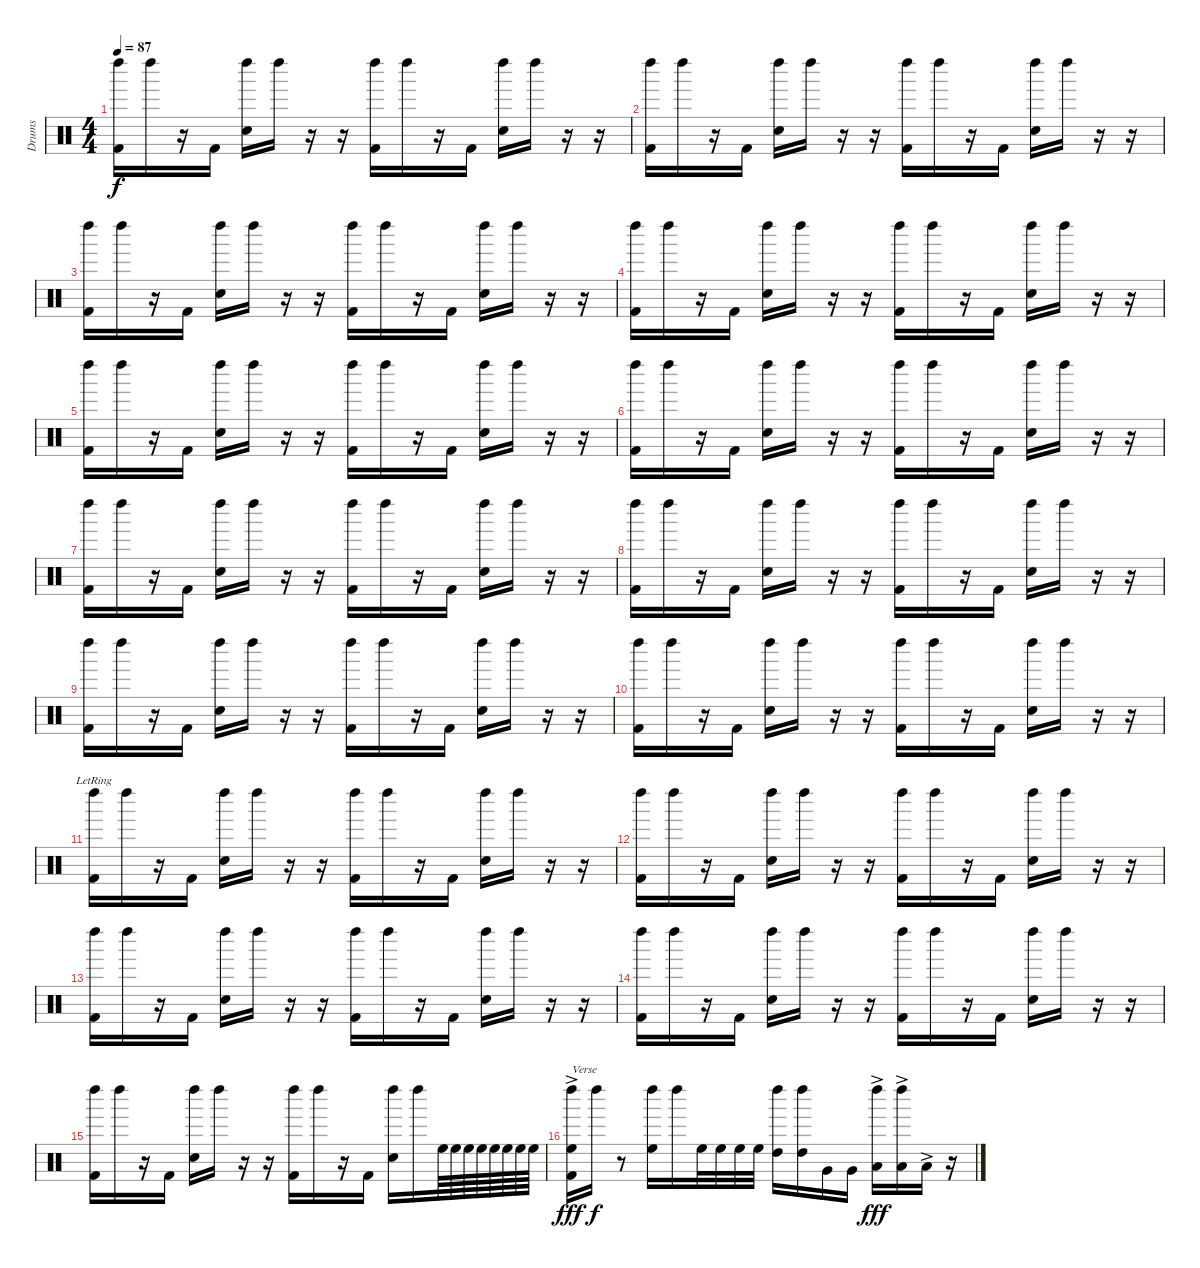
\track ("Drums" "Drums") {instrument percussion}
\staff {score}
\articulation defaults
\ts (4 4)
\tempo 87
\clef neutral
\ks c
("Left Maraca (hit)" "Kick (hit) 2").16{dy f} "Left Maraca (hit)".16 r.16 "Kick (hit) 2".16 ("Left Maraca (hit)" "Hand Clap (hit)").16 "Left Maraca (hit)".16 r.16 r.16 ("Left Maraca (hit)" "Kick (hit) 2").16 "Left Maraca (hit)".16 r.16 "Kick (hit) 2".16 ("Left Maraca (hit)" "Hand Clap (hit)").16 "Left Maraca (hit)".16 r.16 r.16 |
("Left Maraca (hit)" "Kick (hit) 2").16 "Left Maraca (hit)".16 r.16 "Kick (hit) 2".16 ("Left Maraca (hit)" "Hand Clap (hit)").16 "Left Maraca (hit)".16 r.16 r.16 ("Left Maraca (hit)" "Kick (hit) 2").16 "Left Maraca (hit)".16 r.16 "Kick (hit) 2".16 ("Left Maraca (hit)" "Hand Clap (hit)").16 "Left Maraca (hit)".16 r.16 r.16 |
("Left Maraca (hit)" "Kick (hit) 2").16 "Left Maraca (hit)".16 r.16 "Kick (hit) 2".16 ("Left Maraca (hit)" "Hand Clap (hit)").16 "Left Maraca (hit)".16 r.16 r.16 ("Left Maraca (hit)" "Kick (hit) 2").16 "Left Maraca (hit)".16 r.16 "Kick (hit) 2".16 ("Left Maraca (hit)" "Hand Clap (hit)").16 "Left Maraca (hit)".16 r.16 r.16 |
("Left Maraca (hit)" "Kick (hit) 2").16 "Left Maraca (hit)".16 r.16 "Kick (hit) 2".16 ("Left Maraca (hit)" "Hand Clap (hit)").16 "Left Maraca (hit)".16 r.16 r.16 ("Left Maraca (hit)" "Kick (hit) 2").16 "Left Maraca (hit)".16 r.16 "Kick (hit) 2".16 ("Left Maraca (hit)" "Hand Clap (hit)").16 "Left Maraca (hit)".16 r.16 r.16 |
("Left Maraca (hit)" "Kick (hit) 2").16 "Left Maraca (hit)".16 r.16 "Kick (hit) 2".16 ("Left Maraca (hit)" "Hand Clap (hit)").16 "Left Maraca (hit)".16 r.16 r.16 ("Left Maraca (hit)" "Kick (hit) 2").16 "Left Maraca (hit)".16 r.16 "Kick (hit) 2".16 ("Left Maraca (hit)" "Hand Clap (hit)").16 "Left Maraca (hit)".16 r.16 r.16 |
("Left Maraca (hit)" "Kick (hit) 2").16 "Left Maraca (hit)".16 r.16 "Kick (hit) 2".16 ("Left Maraca (hit)" "Hand Clap (hit)").16 "Left Maraca (hit)".16 r.16 r.16 ("Left Maraca (hit)" "Kick (hit) 2").16 "Left Maraca (hit)".16 r.16 "Kick (hit) 2".16 ("Left Maraca (hit)" "Hand Clap (hit)").16 "Left Maraca (hit)".16 r.16 r.16 |
("Left Maraca (hit)" "Kick (hit) 2").16 "Left Maraca (hit)".16 r.16 "Kick (hit) 2".16 ("Left Maraca (hit)" "Hand Clap (hit)").16 "Left Maraca (hit)".16 r.16 r.16 ("Left Maraca (hit)" "Kick (hit) 2").16 "Left Maraca (hit)".16 r.16 "Kick (hit) 2".16 ("Left Maraca (hit)" "Hand Clap (hit)").16 "Left Maraca (hit)".16 r.16 r.16 |
("Left Maraca (hit)" "Kick (hit) 2").16 "Left Maraca (hit)".16 r.16 "Kick (hit) 2".16 ("Left Maraca (hit)" "Hand Clap (hit)").16 "Left Maraca (hit)".16 r.16 r.16 ("Left Maraca (hit)" "Kick (hit) 2").16 "Left Maraca (hit)".16 r.16 "Kick (hit) 2".16 ("Left Maraca (hit)" "Hand Clap (hit)").16 "Left Maraca (hit)".16 r.16 r.16 |
("Left Maraca (hit)" "Kick (hit) 2").16 "Left Maraca (hit)".16 r.16 "Kick (hit) 2".16 ("Left Maraca (hit)" "Hand Clap (hit)").16 "Left Maraca (hit)".16 r.16 r.16 ("Left Maraca (hit)" "Kick (hit) 2").16 "Left Maraca (hit)".16 r.16 "Kick (hit) 2".16 ("Left Maraca (hit)" "Hand Clap (hit)").16 "Left Maraca (hit)".16 r.16 r.16 |
("Left Maraca (hit)" "Kick (hit) 2").16 "Left Maraca (hit)".16 r.16 "Kick (hit) 2".16 ("Left Maraca (hit)" "Hand Clap (hit)").16 "Left Maraca (hit)".16 r.16 r.16 ("Left Maraca (hit)" "Kick (hit) 2").16 "Left Maraca (hit)".16 r.16 "Kick (hit) 2".16 ("Left Maraca (hit)" "Hand Clap (hit)").16 "Left Maraca (hit)".16 r.16 r.16 |
("Left Maraca (hit)"{lr} "Kick (hit) 2").16 "Left Maraca (hit)".16 r.16 "Kick (hit) 2".16 ("Left Maraca (hit)" "Hand Clap (hit)").16 "Left Maraca (hit)".16 r.16 r.16 ("Left Maraca (hit)" "Kick (hit) 2").16 "Left Maraca (hit)".16 r.16 "Kick (hit) 2".16 ("Left Maraca (hit)" "Hand Clap (hit)").16 "Left Maraca (hit)".16 r.16 r.16 |
("Left Maraca (hit)" "Kick (hit) 2").16 "Left Maraca (hit)".16 r.16 "Kick (hit) 2".16 ("Left Maraca (hit)" "Hand Clap (hit)").16 "Left Maraca (hit)".16 r.16 r.16 ("Left Maraca (hit)" "Kick (hit) 2").16 "Left Maraca (hit)".16 r.16 "Kick (hit) 2".16 ("Left Maraca (hit)" "Hand Clap (hit)").16 "Left Maraca (hit)".16 r.16 r.16 |
("Left Maraca (hit)" "Kick (hit) 2").16 "Left Maraca (hit)".16 r.16 "Kick (hit) 2".16 ("Left Maraca (hit)" "Hand Clap (hit)").16 "Left Maraca (hit)".16 r.16 r.16 ("Left Maraca (hit)" "Kick (hit) 2").16 "Left Maraca (hit)".16 r.16 "Kick (hit) 2".16 ("Left Maraca (hit)" "Hand Clap (hit)").16 "Left Maraca (hit)".16 r.16 r.16 |
("Left Maraca (hit)" "Kick (hit) 2").16 "Left Maraca (hit)".16 r.16 "Kick (hit) 2".16 ("Left Maraca (hit)" "Hand Clap (hit)").16 "Left Maraca (hit)".16 r.16 r.16 ("Left Maraca (hit)" "Kick (hit) 2").16 "Left Maraca (hit)".16 r.16 "Kick (hit) 2".16 ("Left Maraca (hit)" "Hand Clap (hit)").16 "Left Maraca (hit)".16 r.16 r.16 |
("Left Maraca (hit)" "Kick (hit) 2").16 "Left Maraca (hit)".16 r.16 "Kick (hit) 2".16 ("Left Maraca (hit)" "Hand Clap (hit)").16 "Left Maraca (hit)".16 r.16 r.16 ("Left Maraca (hit)" "Kick (hit) 2").16 "Left Maraca (hit)".16 r.16 "Kick (hit) 2".16 ("Left Maraca (hit)" "Hand Clap (hit)").16 "Left Maraca (hit)".16 "High Floor Tom (hit)".64 "High Floor Tom (hit)".64 "High Floor Tom (hit)".64 "High Floor Tom (hit)".64 "High Floor Tom (hit)".64 "High Floor Tom (hit)".64 "High Floor Tom (hit)".64 "High Floor Tom (hit)".64 |
("Left Maraca (hit)" "High Floor Tom (hit)"{ac} "Kick (hit) 2").16{txt "Verse" dy fff} "Left Maraca (hit)".16{dy f} r.8 ("Left Maraca (hit)" "High Floor Tom (hit)").16 "Left Maraca (hit)".16 "High Floor Tom (hit)".32 "High Floor Tom (hit)".32 "High Floor Tom (hit)".32 "High Floor Tom (hit)".32 ("Left Maraca (hit)" "High Tom (hit)").16 ("Left Maraca (hit)" "High Tom (hit)").16 "Very Low Tom (hit)".16 "Very Low Tom (hit)".16 ("Left Maraca (hit)" "Low Floor Tom (hit)"{ac}).16{dy fff} ("Left Maraca (hit)" "Low Floor Tom (hit)"{ac}).16 "Low Floor Tom (hit)"{ac}.16 r.16
